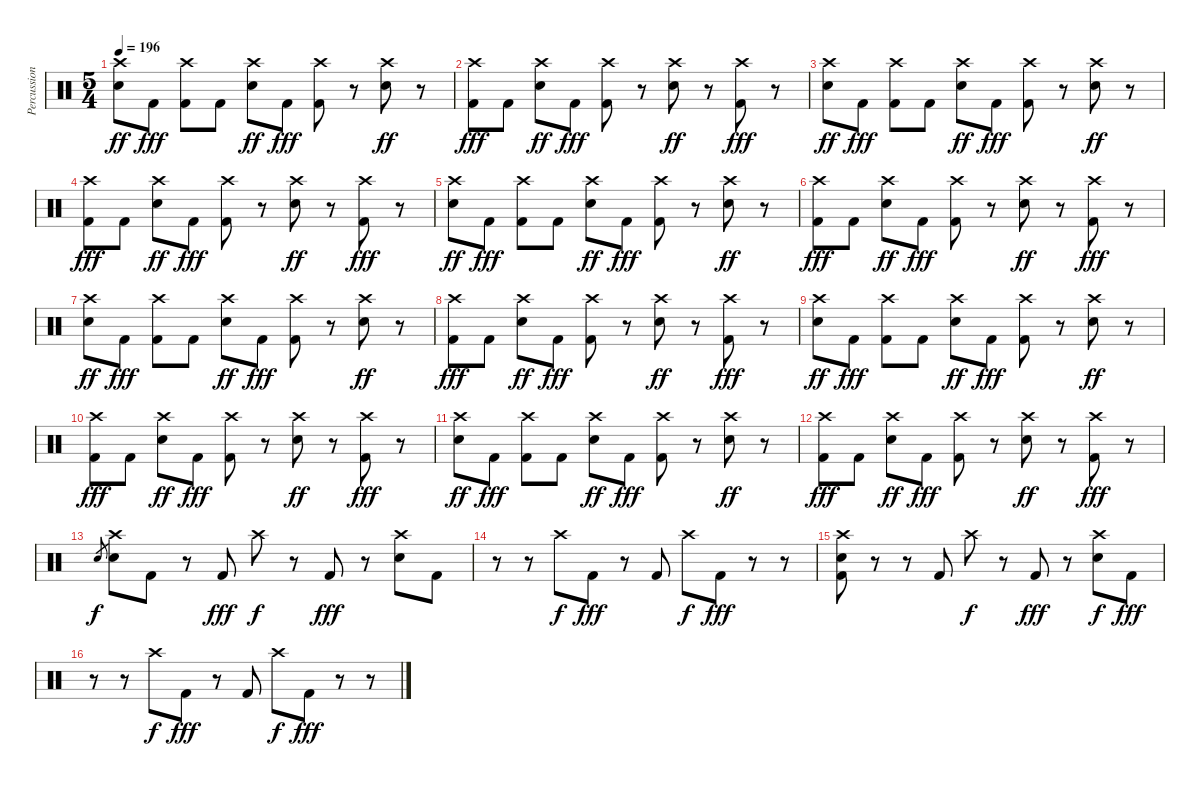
\track ("Percussion" "Percussion") {instrument percussion}
\staff {score}
\articulation defaults
\ts (5 4)
\tempo 196
\clef neutral
\ks c
("Crash high (hit)" "Electric Snare (hit)").8{dy ff} "Kick (hit) 2".8{dy fff} ("Crash high (hit)" "Kick (hit) 2").8 "Kick (hit) 2".8 ("Crash high (hit)" "Electric Snare (hit)").8{dy ff} "Kick (hit) 2".8{dy fff} ("Crash high (hit)" "Kick (hit) 2").8 r.8 ("Crash high (hit)" "Electric Snare (hit)").8{dy ff} r.8 |
("Crash high (hit)" "Kick (hit) 2").8{dy fff} "Kick (hit) 2".8 ("Crash high (hit)" "Electric Snare (hit)").8{dy ff} "Kick (hit) 2".8{dy fff} ("Crash high (hit)" "Kick (hit) 2").8 r.8 ("Crash high (hit)" "Electric Snare (hit)").8{dy ff} r.8 ("Crash high (hit)" "Kick (hit) 2").8{dy fff} r.8 |
("Crash high (hit)" "Electric Snare (hit)").8{dy ff} "Kick (hit) 2".8{dy fff} ("Crash high (hit)" "Kick (hit) 2").8 "Kick (hit) 2".8 ("Crash high (hit)" "Electric Snare (hit)").8{dy ff} "Kick (hit) 2".8{dy fff} ("Crash high (hit)" "Kick (hit) 2").8 r.8 ("Crash high (hit)" "Electric Snare (hit)").8{dy ff} r.8 |
("Crash high (hit)" "Kick (hit) 2").8{dy fff} "Kick (hit) 2".8 ("Crash high (hit)" "Electric Snare (hit)").8{dy ff} "Kick (hit) 2".8{dy fff} ("Crash high (hit)" "Kick (hit) 2").8 r.8 ("Crash high (hit)" "Electric Snare (hit)").8{dy ff} r.8 ("Crash high (hit)" "Kick (hit) 2").8{dy fff} r.8 |
("Crash high (hit)" "Electric Snare (hit)").8{dy ff} "Kick (hit) 2".8{dy fff} ("Crash high (hit)" "Kick (hit) 2").8 "Kick (hit) 2".8 ("Crash high (hit)" "Electric Snare (hit)").8{dy ff} "Kick (hit) 2".8{dy fff} ("Crash high (hit)" "Kick (hit) 2").8 r.8 ("Crash high (hit)" "Electric Snare (hit)").8{dy ff} r.8 |
("Crash high (hit)" "Kick (hit) 2").8{dy fff} "Kick (hit) 2".8 ("Crash high (hit)" "Electric Snare (hit)").8{dy ff} "Kick (hit) 2".8{dy fff} ("Crash high (hit)" "Kick (hit) 2").8 r.8 ("Crash high (hit)" "Electric Snare (hit)").8{dy ff} r.8 ("Crash high (hit)" "Kick (hit) 2").8{dy fff} r.8 |
("Crash high (hit)" "Electric Snare (hit)").8{dy ff} "Kick (hit) 2".8{dy fff} ("Crash high (hit)" "Kick (hit) 2").8 "Kick (hit) 2".8 ("Crash high (hit)" "Electric Snare (hit)").8{dy ff} "Kick (hit) 2".8{dy fff} ("Crash high (hit)" "Kick (hit) 2").8 r.8 ("Crash high (hit)" "Electric Snare (hit)").8{dy ff} r.8 |
("Crash high (hit)" "Kick (hit) 2").8{dy fff} "Kick (hit) 2".8 ("Crash high (hit)" "Electric Snare (hit)").8{dy ff} "Kick (hit) 2".8{dy fff} ("Crash high (hit)" "Kick (hit) 2").8 r.8 ("Crash high (hit)" "Electric Snare (hit)").8{dy ff} r.8 ("Crash high (hit)" "Kick (hit) 2").8{dy fff} r.8 |
("Crash high (hit)" "Electric Snare (hit)").8{dy ff} "Kick (hit) 2".8{dy fff} ("Crash high (hit)" "Kick (hit) 2").8 "Kick (hit) 2".8 ("Crash high (hit)" "Electric Snare (hit)").8{dy ff} "Kick (hit) 2".8{dy fff} ("Crash high (hit)" "Kick (hit) 2").8 r.8 ("Crash high (hit)" "Electric Snare (hit)").8{dy ff} r.8 |
("Crash high (hit)" "Kick (hit) 2").8{dy fff} "Kick (hit) 2".8 ("Crash high (hit)" "Electric Snare (hit)").8{dy ff} "Kick (hit) 2".8{dy fff} ("Crash high (hit)" "Kick (hit) 2").8 r.8 ("Crash high (hit)" "Electric Snare (hit)").8{dy ff} r.8 ("Crash high (hit)" "Kick (hit) 2").8{dy fff} r.8 |
("Crash high (hit)" "Electric Snare (hit)").8{dy ff} "Kick (hit) 2".8{dy fff} ("Crash high (hit)" "Kick (hit) 2").8 "Kick (hit) 2".8 ("Crash high (hit)" "Electric Snare (hit)").8{dy ff} "Kick (hit) 2".8{dy fff} ("Crash high (hit)" "Kick (hit) 2").8 r.8 ("Crash high (hit)" "Electric Snare (hit)").8{dy ff} r.8 |
("Crash high (hit)" "Kick (hit) 2").8{dy fff} "Kick (hit) 2".8 ("Crash high (hit)" "Electric Snare (hit)").8{dy ff} "Kick (hit) 2".8{dy fff} ("Crash high (hit)" "Kick (hit) 2").8 r.8 ("Crash high (hit)" "Electric Snare (hit)").8{dy ff} r.8 ("Crash high (hit)" "Kick (hit) 2").8{dy fff} r.8 |
"Electric Snare (hit)".8{gr dy f} ("Crash high (hit)" "Electric Snare (hit)").8 "Kick (hit) 2".8 r.8 "Kick (hit) 2".8{dy fff} "Crash high (hit)".8{dy f} r.8 "Kick (hit) 2".8{dy fff} r.8 ("Crash high (hit)" "Electric Snare (hit)").8 "Kick (hit) 2".8 |
r.8 r.8 "Crash high (hit)".8{dy f} "Kick (hit) 2".8{dy fff} r.8 "Kick (hit) 2".8 "Crash high (hit)".8{dy f} "Kick (hit) 2".8{dy fff} r.8 r.8 |
("Crash high (hit)" "Electric Snare (hit)" "Kick (hit) 2").8 r.8 r.8 "Kick (hit) 2".8 "Crash high (hit)".8{dy f} r.8 "Kick (hit) 2".8{dy fff} r.8 ("Crash high (hit)" "Electric Snare (hit)").8{dy f} "Kick (hit) 2".8{dy fff} |
r.8 r.8 "Crash high (hit)".8{dy f} "Kick (hit) 2".8{dy fff} r.8 "Kick (hit) 2".8 "Crash high (hit)".8{dy f} "Kick (hit) 2".8{dy fff} r.8 r.8
